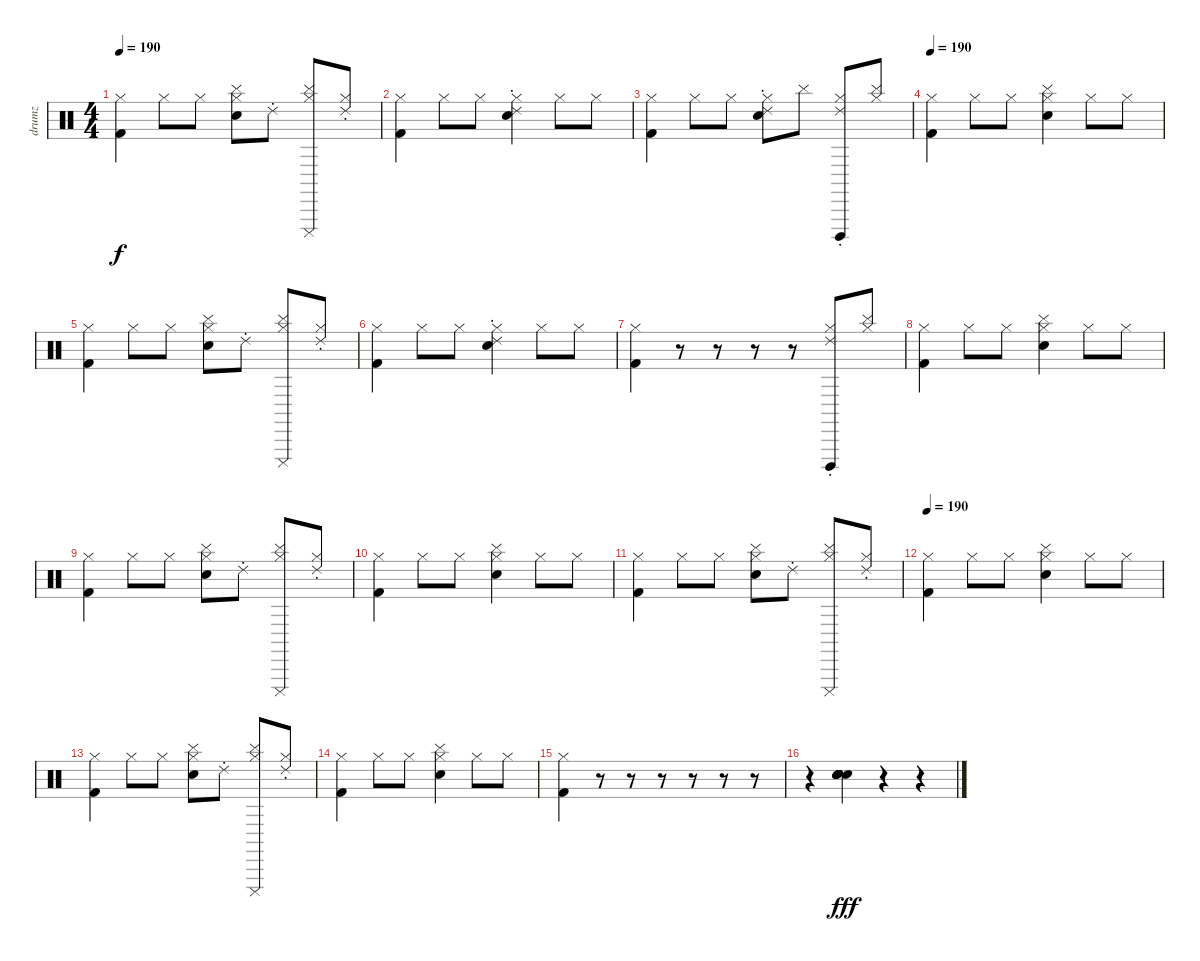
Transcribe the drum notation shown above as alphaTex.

\track ("drumz" "drumz") {instrument percussion}
\staff {score}
\articulation defaults
\ts (4 4)
\tempo 190
\clef neutral
\ks c
("Hi-Hat (closed)" "Kick (hit) 2").4{dy f} "Hi-Hat (closed)".8 "Hi-Hat (closed)".8 ("Cymbal (hit)" "Hi-Hat (closed)" "Hand Clap (hit)").8 "Ride (choke) 2".8 ("Cymbal (hit)" "Cuica (mute)" "Hi-Hat (closed)").8 ("Ride (choke) 2" "Hi-Hat (closed)").8 |
("Hi-Hat (closed)" "Kick (hit) 2").4 "Hi-Hat (closed)".8 "Hi-Hat (closed)".8 ("Ride (choke) 2" "Hi-Hat (closed)" "Hand Clap (hit)").4 "Hi-Hat (closed)".8 "Hi-Hat (closed)".8 |
("Hi-Hat (closed)" "Kick (hit) 2").4 "Hi-Hat (closed)".8 "Hi-Hat (closed)".8 ("Ride (choke) 2" "Hi-Hat (closed)" "Hand Clap (hit)").8 "Cymbal (hit)".8 ("Ride (choke) 2" "Cuica (open)" "Hi-Hat (closed)").8 ("Cymbal (hit)" "Hi-Hat (closed)").8 |
\tempo 190
("Hi-Hat (closed)" "Kick (hit) 2").4 "Hi-Hat (closed)".8 "Hi-Hat (closed)".8 ("Cymbal (hit)" "Hi-Hat (closed)" "Hand Clap (hit)").4 "Hi-Hat (closed)".8 "Hi-Hat (closed)".8 |
("Hi-Hat (closed)" "Kick (hit) 2").4 "Hi-Hat (closed)".8 "Hi-Hat (closed)".8 ("Cymbal (hit)" "Hi-Hat (closed)" "Hand Clap (hit)").8 "Ride (choke) 2".8 ("Cymbal (hit)" "Cuica (mute)" "Hi-Hat (closed)").8 ("Ride (choke) 2" "Hi-Hat (closed)").8 |
("Hi-Hat (closed)" "Kick (hit) 2").4 "Hi-Hat (closed)".8 "Hi-Hat (closed)".8 ("Ride (choke) 2" "Hi-Hat (closed)" "Hand Clap (hit)").4 "Hi-Hat (closed)".8 "Hi-Hat (closed)".8 |
("Hi-Hat (closed)" "Kick (hit) 2").4 r.8 r.8 r.8 r.8 ("Ride (choke) 2" "Cuica (open)" "Hi-Hat (closed)").8 ("Cymbal (hit)" "Hi-Hat (closed)").8 |
("Hi-Hat (closed)" "Kick (hit) 2").4 "Hi-Hat (closed)".8 "Hi-Hat (closed)".8 ("Cymbal (hit)" "Hi-Hat (closed)" "Hand Clap (hit)").4 "Hi-Hat (closed)".8 "Hi-Hat (closed)".8 |
("Hi-Hat (closed)" "Kick (hit) 2").4 "Hi-Hat (closed)".8 "Hi-Hat (closed)".8 ("Cymbal (hit)" "Hi-Hat (closed)" "Hand Clap (hit)").8 "Ride (choke) 2".8 ("Cymbal (hit)" "Cuica (mute)" "Hi-Hat (closed)").8 ("Ride (choke) 2" "Hi-Hat (closed)").8 |
("Hi-Hat (closed)" "Kick (hit) 2").4 "Hi-Hat (closed)".8 "Hi-Hat (closed)".8 ("Cymbal (hit)" "Hi-Hat (closed)" "Hand Clap (hit)").4 "Hi-Hat (closed)".8 "Hi-Hat (closed)".8 |
("Hi-Hat (closed)" "Kick (hit) 2").4 "Hi-Hat (closed)".8 "Hi-Hat (closed)".8 ("Cymbal (hit)" "Hi-Hat (closed)" "Hand Clap (hit)").8 "Ride (choke) 2".8 ("Cymbal (hit)" "Cuica (mute)" "Hi-Hat (closed)").8 ("Ride (choke) 2" "Hi-Hat (closed)").8 |
\tempo 190
("Hi-Hat (closed)" "Kick (hit) 2").4 "Hi-Hat (closed)".8 "Hi-Hat (closed)".8 ("Cymbal (hit)" "Hi-Hat (closed)" "Hand Clap (hit)").4 "Hi-Hat (closed)".8 "Hi-Hat (closed)".8 |
("Hi-Hat (closed)" "Kick (hit) 2").4 "Hi-Hat (closed)".8 "Hi-Hat (closed)".8 ("Cymbal (hit)" "Hi-Hat (closed)" "Hand Clap (hit)").8 "Ride (choke) 2".8 ("Cymbal (hit)" "Cuica (mute)" "Hi-Hat (closed)").8 ("Ride (choke) 2" "Hi-Hat (closed)").8 |
("Hi-Hat (closed)" "Kick (hit) 2").4 "Hi-Hat (closed)".8 "Hi-Hat (closed)".8 ("Cymbal (hit)" "Hi-Hat (closed)" "Hand Clap (hit)").4 "Hi-Hat (closed)".8 "Hi-Hat (closed)".8 |
("Hi-Hat (closed)" "Kick (hit) 2").4 r.8 r.8 r.8 r.8 r.8 r.8 |
r.4 ("Hand Clap (hit)" "Hand Clap (hit)" "Hand Clap (hit)" "Hand Clap (hit)" "Hand Clap (hit)" "Hand Clap (hit)").4{dy fff} r.4 r.4
